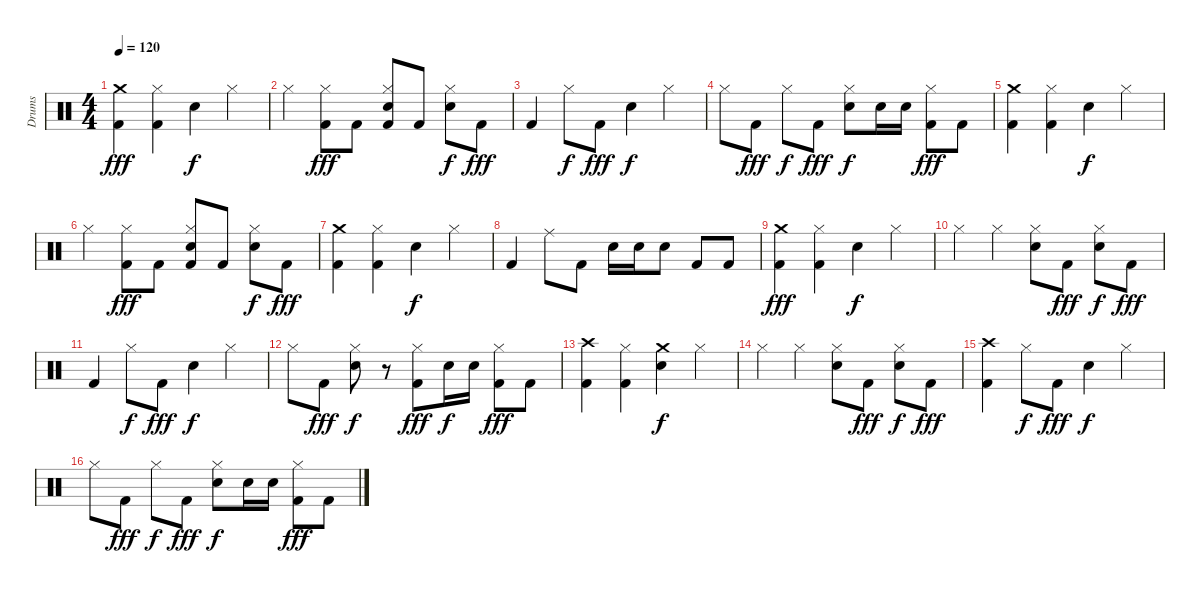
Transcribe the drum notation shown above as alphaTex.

\track ("Drums" "Drums") {instrument percussion}
\staff {score}
\articulation defaults
\ts (4 4)
\tempo 120
\clef neutral
\ks c
("Kick (hit) 2" "Crash medium (hit)").4{dy fff} ("Kick (hit) 2" "Hi-Hat (closed)").4 "Snare (hit) 2".4{dy f} "Hi-Hat (closed)".4 |
"Hi-Hat (closed)".4 ("Kick (hit) 2" "Hi-Hat (closed)").8{dy fff} "Kick (hit) 2".8 ("Kick (hit) 2" "Hi-Hat (closed)" "Snare (hit) 2").8 "Kick (hit) 2".8 ("Hi-Hat (closed)" "Snare (hit) 2").8{dy f} "Kick (hit) 2".8{dy fff} |
"Kick (hit) 2".4 "Hi-Hat (closed)".8{dy f} "Kick (hit) 2".8{dy fff} "Snare (hit) 2".4{dy f} "Hi-Hat (closed)".4 |
"Hi-Hat (closed)".8 "Kick (hit) 2".8{dy fff} "Hi-Hat (closed)".8{dy f} "Kick (hit) 2".8{dy fff} ("Hi-Hat (closed)" "Snare (hit) 2").8{dy f} "Snare (hit) 2".16 "Snare (hit) 2".16 ("Kick (hit) 2" "Hi-Hat (closed)").8{dy fff} "Kick (hit) 2".8 |
("Kick (hit) 2" "Crash medium (hit)").4 ("Kick (hit) 2" "Hi-Hat (closed)").4 "Snare (hit) 2".4{dy f} "Hi-Hat (closed)".4 |
"Hi-Hat (closed)".4 ("Kick (hit) 2" "Hi-Hat (closed)").8{dy fff} "Kick (hit) 2".8 ("Kick (hit) 2" "Hi-Hat (closed)" "Snare (hit) 2").8 "Kick (hit) 2".8 ("Hi-Hat (closed)" "Snare (hit) 2").8{dy f} "Kick (hit) 2".8{dy fff} |
("Kick (hit) 2" "Crash medium (hit)").4 ("Kick (hit) 2" "Hi-Hat (closed)").4 "Snare (hit) 2".4{dy f} "Hi-Hat (closed)".4 |
"Kick (hit) 2".4 "Ride (middle)".8 "Kick (hit) 2".8 "Snare (hit) 2".16 "Snare (hit) 2".16 "Snare (hit) 2".8 "Kick (hit) 2".8 "Kick (hit) 2".8 |
("Kick (hit) 2" "Crash medium (hit)").4{dy fff} ("Kick (hit) 2" "Hi-Hat (closed)").4 "Snare (hit) 2".4{dy f} "Hi-Hat (closed)".4 |
"Hi-Hat (closed)".4 "Hi-Hat (closed)".4 ("Hi-Hat (closed)" "Snare (hit) 2").8 "Kick (hit) 2".8{dy fff} ("Hi-Hat (closed)" "Snare (hit) 2").8{dy f} "Kick (hit) 2".8{dy fff} |
"Kick (hit) 2".4 "Hi-Hat (closed)".8{dy f} "Kick (hit) 2".8{dy fff} "Snare (hit) 2".4{dy f} "Hi-Hat (closed)".4 |
"Hi-Hat (closed)".8 "Kick (hit) 2".8{dy fff} ("Hi-Hat (closed)" "Snare (hit) 2").8{dy f} r.8 ("Kick (hit) 2" "Hi-Hat (closed)").8{dy fff} "Snare (hit) 2".16{dy f} "Snare (hit) 2".16 ("Kick (hit) 2" "Hi-Hat (closed)").8{dy fff} "Kick (hit) 2".8 |
("Kick (hit) 2" "Crash high (hit)").4 ("Kick (hit) 2" "Hi-Hat (closed)").4 ("Snare (hit) 2" "Crash medium (hit)").4{dy f} "Hi-Hat (closed)".4 |
"Hi-Hat (closed)".4 "Hi-Hat (closed)".4 ("Hi-Hat (closed)" "Snare (hit) 2").8 "Kick (hit) 2".8{dy fff} ("Hi-Hat (closed)" "Snare (hit) 2").8{dy f} "Kick (hit) 2".8{dy fff} |
("Kick (hit) 2" "Crash high (hit)").4 "Hi-Hat (closed)".8{dy f} "Kick (hit) 2".8{dy fff} "Snare (hit) 2".4{dy f} "Hi-Hat (closed)".4 |
"Hi-Hat (closed)".8 "Kick (hit) 2".8{dy fff} "Hi-Hat (closed)".8{dy f} "Kick (hit) 2".8{dy fff} ("Hi-Hat (closed)" "Snare (hit) 2").8{dy f} "Snare (hit) 2".16 "Snare (hit) 2".16 ("Kick (hit) 2" "Hi-Hat (closed)").8{dy fff} "Kick (hit) 2".8
